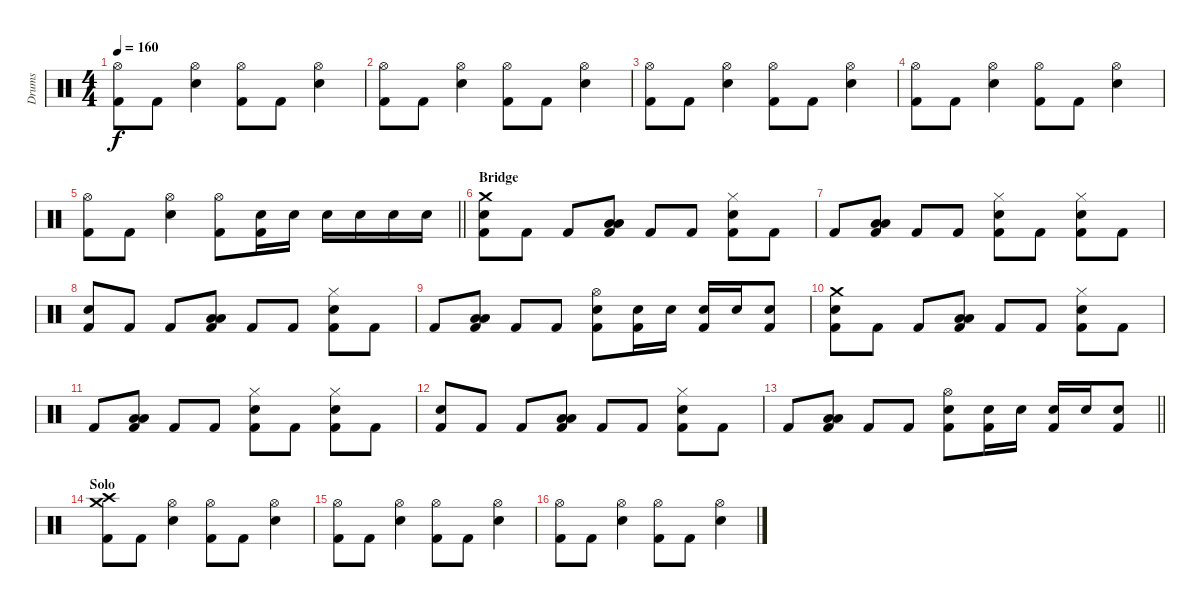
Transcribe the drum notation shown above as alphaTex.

\track ("Drums" "Drums") {instrument percussion}
\staff {score}
\articulation defaults
\ts (4 4)
\tempo 160
\clef neutral
\ks c
("Hi-Hat (open)" "Kick (hit) 2").8{dy f} "Kick (hit) 2".8 ("Hi-Hat (open)" "Snare (hit) 2").4 ("Hi-Hat (open)" "Kick (hit) 2").8 "Kick (hit) 2".8 ("Hi-Hat (open)" "Snare (hit) 2").4 |
("Hi-Hat (open)" "Kick (hit) 2").8 "Kick (hit) 2".8 ("Hi-Hat (open)" "Snare (hit) 2").4 ("Hi-Hat (open)" "Kick (hit) 2").8 "Kick (hit) 2".8 ("Hi-Hat (open)" "Snare (hit) 2").4 |
("Hi-Hat (open)" "Kick (hit) 2").8 "Kick (hit) 2".8 ("Hi-Hat (open)" "Snare (hit) 2").4 ("Hi-Hat (open)" "Kick (hit) 2").8 "Kick (hit) 2".8 ("Hi-Hat (open)" "Snare (hit) 2").4 |
("Hi-Hat (open)" "Kick (hit) 2").8 "Kick (hit) 2".8 ("Hi-Hat (open)" "Snare (hit) 2").4 ("Hi-Hat (open)" "Kick (hit) 2").8 "Kick (hit) 2".8 ("Hi-Hat (open)" "Snare (hit) 2").4 |
\barLineRight lightlight
("Hi-Hat (open)" "Kick (hit) 2").8 "Kick (hit) 2".8 ("Hi-Hat (open)" "Snare (hit) 2").4 ("Hi-Hat (open)" "Kick (hit) 2").8 ("Snare (hit) 2" "Kick (hit) 2").16 "Snare (hit) 2".16 "Snare (hit) 2".16 "Snare (hit) 2".16 "Snare (hit) 2".16 "Snare (hit) 2".16 |
\section ("" "Bridge")
("Crash medium (hit)" "Snare (hit) 2" "Kick (hit) 2").8 "Kick (hit) 2".8 "Kick (hit) 2".8 ("Low Floor Tom (hit)" "Low Tom (hit)" "Kick (hit) 2").8 "Kick (hit) 2".8 "Kick (hit) 2".8 ("Hi-Hat (closed)" "Snare (hit) 2" "Kick (hit) 2").8 "Kick (hit) 2".8 |
"Kick (hit) 2".8 ("Low Floor Tom (hit)" "Low Tom (hit)" "Kick (hit) 2").8 "Kick (hit) 2".8 "Kick (hit) 2".8 ("Hi-Hat (closed)" "Snare (hit) 2" "Kick (hit) 2").8 "Kick (hit) 2".8 ("Hi-Hat (closed)" "Snare (hit) 2" "Kick (hit) 2").8 "Kick (hit) 2".8 |
("Snare (hit) 2" "Kick (hit) 2").8 "Kick (hit) 2".8 "Kick (hit) 2".8 ("Low Floor Tom (hit)" "Low Tom (hit)" "Kick (hit) 2").8 "Kick (hit) 2".8 "Kick (hit) 2".8 ("Hi-Hat (closed)" "Snare (hit) 2" "Kick (hit) 2").8 "Kick (hit) 2".8 |
"Kick (hit) 2".8 ("Low Floor Tom (hit)" "Low Tom (hit)" "Kick (hit) 2").8 "Kick (hit) 2".8 "Kick (hit) 2".8 ("Hi-Hat (open)" "Snare (hit) 2" "Kick (hit) 2").8 ("Snare (hit) 2" "Kick (hit) 2").16 "Snare (hit) 2".16 ("Snare (hit) 2" "Kick (hit) 2").16 "Snare (hit) 2".16 ("Snare (hit) 2" "Kick (hit) 2").8 |
("Crash medium (hit)" "Snare (hit) 2" "Kick (hit) 2").8 "Kick (hit) 2".8 "Kick (hit) 2".8 ("Low Floor Tom (hit)" "Low Tom (hit)" "Kick (hit) 2").8 "Kick (hit) 2".8 "Kick (hit) 2".8 ("Hi-Hat (closed)" "Snare (hit) 2" "Kick (hit) 2").8 "Kick (hit) 2".8 |
"Kick (hit) 2".8 ("Low Floor Tom (hit)" "Low Tom (hit)" "Kick (hit) 2").8 "Kick (hit) 2".8 "Kick (hit) 2".8 ("Hi-Hat (closed)" "Snare (hit) 2" "Kick (hit) 2").8 "Kick (hit) 2".8 ("Hi-Hat (closed)" "Snare (hit) 2" "Kick (hit) 2").8 "Kick (hit) 2".8 |
("Snare (hit) 2" "Kick (hit) 2").8 "Kick (hit) 2".8 "Kick (hit) 2".8 ("Low Floor Tom (hit)" "Low Tom (hit)" "Kick (hit) 2").8 "Kick (hit) 2".8 "Kick (hit) 2".8 ("Hi-Hat (closed)" "Snare (hit) 2" "Kick (hit) 2").8 "Kick (hit) 2".8 |
\barLineRight lightlight "Kick (hit) 2".8
("Low Floor Tom (hit)" "Low Tom (hit)" "Kick (hit) 2").8 "Kick (hit) 2".8 "Kick (hit) 2".8 ("Hi-Hat (open)" "Snare (hit) 2" "Kick (hit) 2").8 ("Snare (hit) 2" "Kick (hit) 2").16 "Snare (hit) 2".16 ("Snare (hit) 2" "Kick (hit) 2").16 "Snare (hit) 2".16 ("Snare (hit) 2" "Kick (hit) 2").8 |
\section ("" "Solo")
("Crash medium (hit)" "Crash high (hit)" "Kick (hit) 2").8 "Kick (hit) 2".8 ("Hi-Hat (open)" "Snare (hit) 2").4 ("Hi-Hat (open)" "Kick (hit) 2").8 "Kick (hit) 2".8 ("Hi-Hat (open)" "Snare (hit) 2").4 |
("Hi-Hat (open)" "Kick (hit) 2").8 "Kick (hit) 2".8 ("Hi-Hat (open)" "Snare (hit) 2").4 ("Hi-Hat (open)" "Kick (hit) 2").8 "Kick (hit) 2".8 ("Hi-Hat (open)" "Snare (hit) 2").4 |
("Hi-Hat (open)" "Kick (hit) 2").8 "Kick (hit) 2".8 ("Hi-Hat (open)" "Snare (hit) 2").4 ("Hi-Hat (open)" "Kick (hit) 2").8 "Kick (hit) 2".8 ("Hi-Hat (open)" "Snare (hit) 2").4
